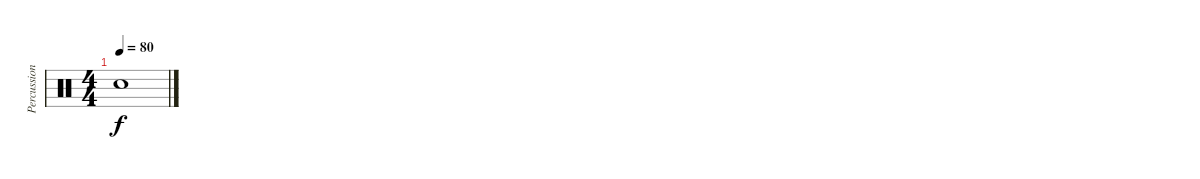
\track ("Percussion" "Percussion") {instrument percussion}
\staff {score}
\articulation defaults
\ts (4 4)
\tempo 80
\clef neutral
\ks c "Snare (hit)"{t}.1{dy f}
